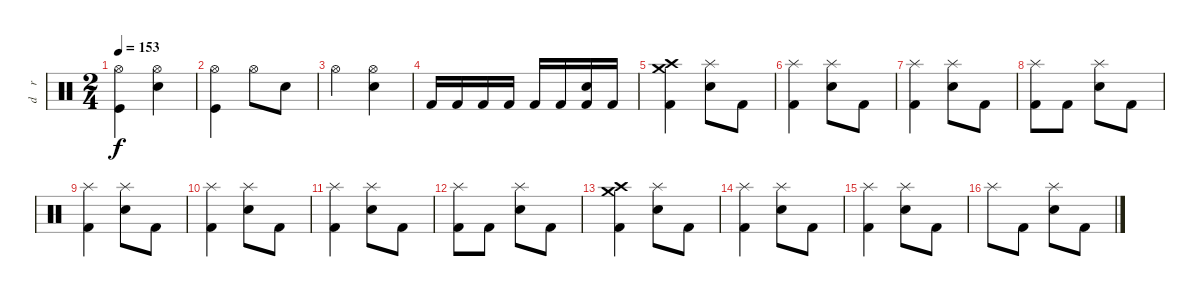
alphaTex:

\track ("d    r     u    m    s" "d    r    ") {instrument percussion}
\staff {score}
\articulation defaults
\ts (2 4)
\tempo 153
\clef neutral
\ks c
("Hi-Hat (open)" "Kick (hit)").4{dy f} ("Hi-Hat (open)" "Electric Snare (hit)").4 |
("Hi-Hat (open)" "Kick (hit)").4 "Hi-Hat (open)".8 "Electric Snare (hit)".8 |
"Hi-Hat (open)".4 ("Hi-Hat (open)" "Electric Snare (hit)").4 |
"Kick (hit) 2".16 "Kick (hit) 2".16 "Kick (hit) 2".16 "Kick (hit) 2".16 "Kick (hit) 2".16 "Kick (hit) 2".16 ("Electric Snare (hit)" "Kick (hit) 2").16 "Kick (hit) 2".16 |
("Crash high (hit)" "Crash medium (hit)" "Kick (hit) 2").4 ("Splash (hit)" "Electric Snare (hit)").8 "Kick (hit) 2".8 |
("Splash (hit)" "Kick (hit) 2").4 ("Splash (hit)" "Electric Snare (hit)").8 "Kick (hit) 2".8 |
("Splash (hit)" "Kick (hit) 2").4 ("Splash (hit)" "Electric Snare (hit)").8 "Kick (hit) 2".8 |
("Splash (hit)" "Kick (hit) 2").8 "Kick (hit) 2".8 ("Splash (hit)" "Electric Snare (hit)").8 "Kick (hit) 2".8 |
("Splash (hit)" "Kick (hit) 2").4 ("Splash (hit)" "Electric Snare (hit)").8 "Kick (hit) 2".8 |
("Splash (hit)" "Kick (hit) 2").4 ("Splash (hit)" "Electric Snare (hit)").8 "Kick (hit) 2".8 |
("Splash (hit)" "Kick (hit) 2").4 ("Splash (hit)" "Electric Snare (hit)").8 "Kick (hit) 2".8 |
("Splash (hit)" "Kick (hit) 2").8 "Kick (hit) 2".8 ("Splash (hit)" "Electric Snare (hit)").8 "Kick (hit) 2".8 |
("Crash high (hit)" "Crash medium (hit)" "Kick (hit) 2").4 ("Splash (hit)" "Electric Snare (hit)").8 "Kick (hit) 2".8 |
("Splash (hit)" "Kick (hit) 2").4 ("Splash (hit)" "Electric Snare (hit)").8 "Kick (hit) 2".8 |
("Splash (hit)" "Kick (hit) 2").4 ("Splash (hit)" "Electric Snare (hit)").8 "Kick (hit) 2".8 |
"Splash (hit)".8 "Kick (hit) 2".8 ("Splash (hit)" "Electric Snare (hit)").8 "Kick (hit) 2".8
